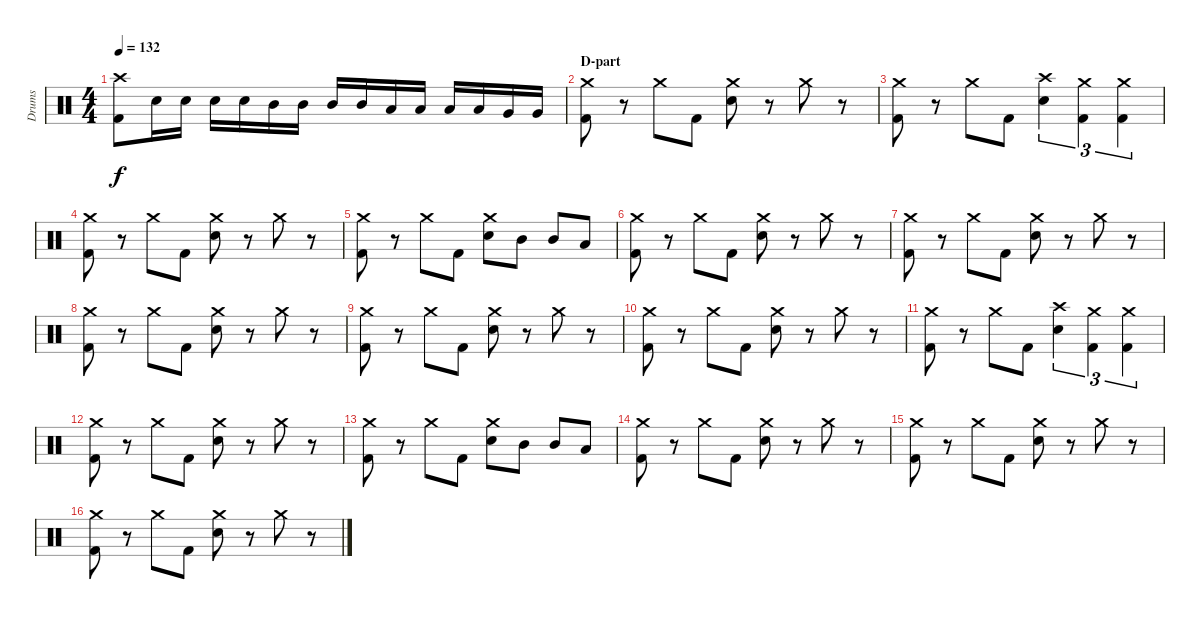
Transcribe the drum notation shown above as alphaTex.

\track ("Drums" "Drums") {instrument percussion}
\staff {score}
\articulation defaults
\ts (4 4)
\tempo 132
\clef neutral
\ks c
("Crash high (hit)" "Kick (hit) 2").8{dy f} "Snare (hit) 2".16 "Snare (hit) 2".16 "Snare (hit) 2".16 "Snare (hit) 2".16 "Mid Tom (hit)".16 "Mid Tom (hit)".16 "Mid Tom (hit)".16 "Mid Tom (hit)".16 "Low Tom (hit)".16 "Low Tom (hit)".16 "Low Tom (hit)".16 "Low Tom (hit)".16 "Very Low Tom (hit)".16 "Very Low Tom (hit)".16 |
\section ("" "D-part")
("Crash medium (hit)" "Kick (hit) 2").8 r.8 "Crash medium (hit)".8 "Kick (hit) 2".8 ("Crash medium (hit)" "Snare (hit) 2").8 r.8 "Crash medium (hit)".8 r.8 |
("Crash medium (hit)" "Kick (hit) 2").8 r.8 "Crash medium (hit)".8 "Kick (hit) 2".8 ("Crash high (hit)" "Snare (hit) 2").4{tu (3 2)} ("Crash medium (hit)" "Kick (hit) 2").4{tu (3 2)} ("Crash medium (hit)" "Kick (hit) 2").4{tu (3 2)} |
("Crash medium (hit)" "Kick (hit) 2").8 r.8 "Crash medium (hit)".8 "Kick (hit) 2".8 ("Crash medium (hit)" "Snare (hit) 2").8 r.8 "Crash medium (hit)".8 r.8 |
("Crash medium (hit)" "Kick (hit) 2").8 r.8 "Crash medium (hit)".8 "Kick (hit) 2".8 ("Crash medium (hit)" "Snare (hit) 2").8 "Mid Tom (hit)".8 "Mid Tom (hit)".8 "Low Tom (hit)".8 |
("Crash medium (hit)" "Kick (hit) 2").8 r.8 "Crash medium (hit)".8 "Kick (hit) 2".8 ("Crash medium (hit)" "Snare (hit) 2").8 r.8 "Crash medium (hit)".8 r.8 |
("Crash medium (hit)" "Kick (hit) 2").8 r.8 "Crash medium (hit)".8 "Kick (hit) 2".8 ("Crash medium (hit)" "Snare (hit) 2").8 r.8 "Crash medium (hit)".8 r.8 |
("Crash medium (hit)" "Kick (hit) 2").8 r.8 "Crash medium (hit)".8 "Kick (hit) 2".8 ("Crash medium (hit)" "Snare (hit) 2").8 r.8 "Crash medium (hit)".8 r.8 |
("Crash medium (hit)" "Kick (hit) 2").8 r.8 "Crash medium (hit)".8 "Kick (hit) 2".8 ("Crash medium (hit)" "Snare (hit) 2").8 r.8 "Crash medium (hit)".8 r.8 |
("Crash medium (hit)" "Kick (hit) 2").8 r.8 "Crash medium (hit)".8 "Kick (hit) 2".8 ("Crash medium (hit)" "Snare (hit) 2").8 r.8 "Crash medium (hit)".8 r.8 |
("Crash medium (hit)" "Kick (hit) 2").8 r.8 "Crash medium (hit)".8 "Kick (hit) 2".8 ("Crash high (hit)" "Snare (hit) 2").4{tu (3 2)} ("Crash medium (hit)" "Kick (hit) 2").4{tu (3 2)} ("Crash medium (hit)" "Kick (hit) 2").4{tu (3 2)} |
("Crash medium (hit)" "Kick (hit) 2").8 r.8 "Crash medium (hit)".8 "Kick (hit) 2".8 ("Crash medium (hit)" "Snare (hit) 2").8 r.8 "Crash medium (hit)".8 r.8 |
("Crash medium (hit)" "Kick (hit) 2").8 r.8 "Crash medium (hit)".8 "Kick (hit) 2".8 ("Crash medium (hit)" "Snare (hit) 2").8 "Mid Tom (hit)".8 "Mid Tom (hit)".8 "Low Tom (hit)".8 |
("Crash medium (hit)" "Kick (hit) 2").8 r.8 "Crash medium (hit)".8 "Kick (hit) 2".8 ("Crash medium (hit)" "Snare (hit) 2").8 r.8 "Crash medium (hit)".8 r.8 |
("Crash medium (hit)" "Kick (hit) 2").8 r.8 "Crash medium (hit)".8 "Kick (hit) 2".8 ("Crash medium (hit)" "Snare (hit) 2").8 r.8 "Crash medium (hit)".8 r.8 |
("Crash medium (hit)" "Kick (hit) 2").8 r.8 "Crash medium (hit)".8 "Kick (hit) 2".8 ("Crash medium (hit)" "Snare (hit) 2").8 r.8 "Crash medium (hit)".8 r.8
